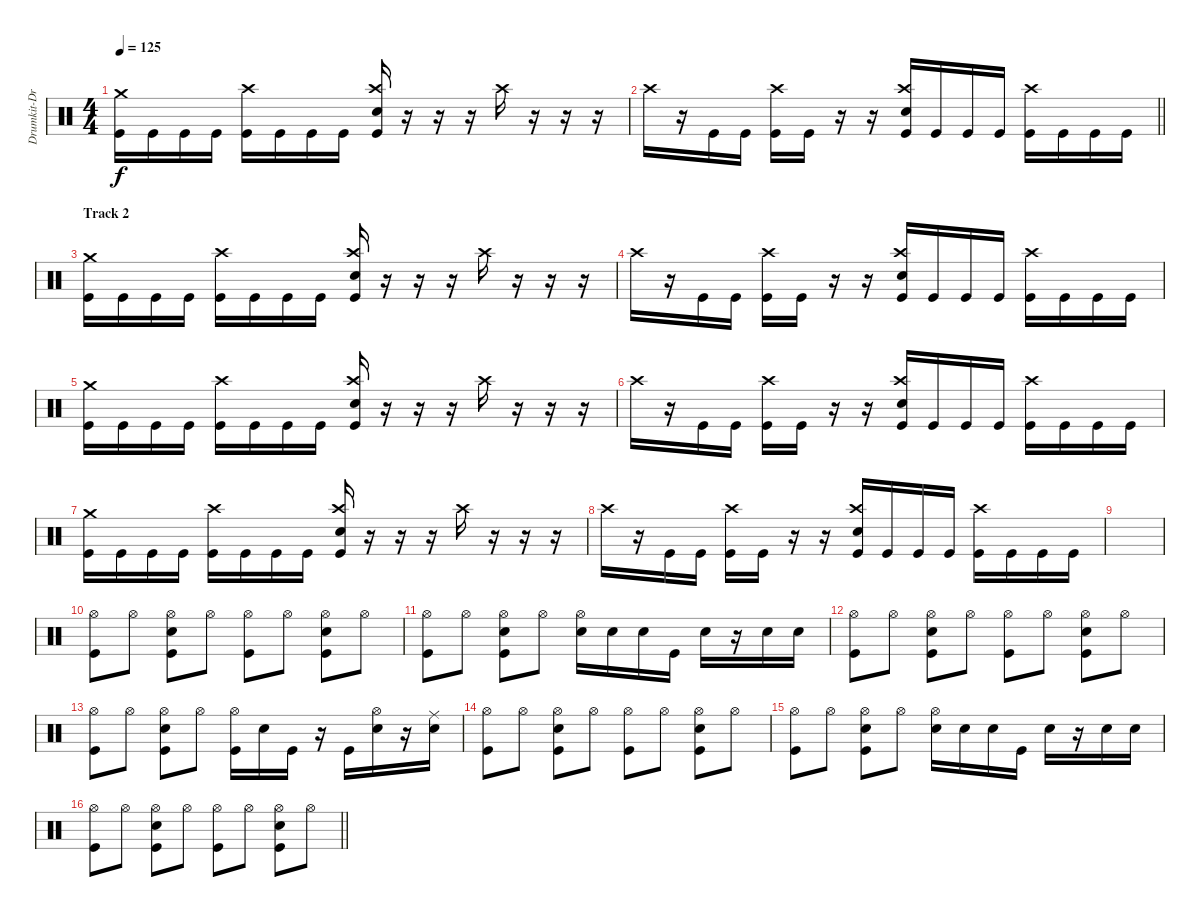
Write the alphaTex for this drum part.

\track ("Drumkit-Drums" "Drumkit-Dr") {instrument percussion}
\staff {score}
\articulation defaults
\ts (4 4)
\tempo 125
\clef neutral
\ks c
("Kick (hit)" "Crash medium (hit)").16{dy f} "Kick (hit)".16 "Kick (hit)".16 "Kick (hit)".16 ("Kick (hit)" "Crash high (hit)").16 "Kick (hit)".16 "Kick (hit)".16 "Kick (hit)".16 ("Kick (hit)" "Crash high (hit)" "Snare (hit) 2").16 r.16 r.16 r.16 "Crash high (hit)".16 r.16 r.16 r.16 |
\barLineRight lightlight "Crash high (hit)".16
r.16 "Kick (hit)".16 "Kick (hit)".16 ("Kick (hit)" "Crash high (hit)").16 "Kick (hit)".16 r.16 r.16 ("Crash high (hit)" "Kick (hit)" "Snare (hit) 2").16 "Kick (hit)".16 "Kick (hit)".16 "Kick (hit)".16 ("Kick (hit)" "Crash high (hit)").16 "Kick (hit)".16 "Kick (hit)".16 "Kick (hit)".16 |
\section ("" "Track 2")
("Kick (hit)" "Crash medium (hit)").16 "Kick (hit)".16 "Kick (hit)".16 "Kick (hit)".16 ("Kick (hit)" "Crash high (hit)").16 "Kick (hit)".16 "Kick (hit)".16 "Kick (hit)".16 ("Kick (hit)" "Crash high (hit)" "Snare (hit) 2").16 r.16 r.16 r.16 "Crash high (hit)".16 r.16 r.16 r.16 |
"Crash high (hit)".16 r.16 "Kick (hit)".16 "Kick (hit)".16 ("Kick (hit)" "Crash high (hit)").16 "Kick (hit)".16 r.16 r.16 ("Crash high (hit)" "Kick (hit)" "Snare (hit) 2").16 "Kick (hit)".16 "Kick (hit)".16 "Kick (hit)".16 ("Kick (hit)" "Crash high (hit)").16 "Kick (hit)".16 "Kick (hit)".16 "Kick (hit)".16 |
("Kick (hit)" "Crash medium (hit)").16 "Kick (hit)".16 "Kick (hit)".16 "Kick (hit)".16 ("Kick (hit)" "Crash high (hit)").16 "Kick (hit)".16 "Kick (hit)".16 "Kick (hit)".16 ("Kick (hit)" "Crash high (hit)" "Snare (hit) 2").16 r.16 r.16 r.16 "Crash high (hit)".16 r.16 r.16 r.16 |
"Crash high (hit)".16 r.16 "Kick (hit)".16 "Kick (hit)".16 ("Kick (hit)" "Crash high (hit)").16 "Kick (hit)".16 r.16 r.16 ("Crash high (hit)" "Kick (hit)" "Snare (hit) 2").16 "Kick (hit)".16 "Kick (hit)".16 "Kick (hit)".16 ("Kick (hit)" "Crash high (hit)").16 "Kick (hit)".16 "Kick (hit)".16 "Kick (hit)".16 |
("Kick (hit)" "Crash medium (hit)").16 "Kick (hit)".16 "Kick (hit)".16 "Kick (hit)".16 ("Kick (hit)" "Crash high (hit)").16 "Kick (hit)".16 "Kick (hit)".16 "Kick (hit)".16 ("Kick (hit)" "Crash high (hit)" "Snare (hit) 2").16 r.16 r.16 r.16 "Crash high (hit)".16 r.16 r.16 r.16 |
"Crash high (hit)".16 r.16 "Kick (hit)".16 "Kick (hit)".16 ("Kick (hit)" "Crash high (hit)").16 "Kick (hit)".16 r.16 r.16 ("Crash high (hit)" "Kick (hit)" "Snare (hit) 2").16 "Kick (hit)".16 "Kick (hit)".16 "Kick (hit)".16 ("Kick (hit)" "Crash high (hit)").16 "Kick (hit)".16 "Kick (hit)".16 "Kick (hit)".16 |
|
("Kick (hit)" "Hi-Hat (open)").8 "Hi-Hat (open)".8 ("Kick (hit)" "Snare (hit) 2" "Hi-Hat (open)").8 "Hi-Hat (open)".8 ("Kick (hit)" "Hi-Hat (open)").8 "Hi-Hat (open)".8 ("Kick (hit)" "Snare (hit) 2" "Hi-Hat (open)").8 "Hi-Hat (open)".8 |
("Kick (hit)" "Hi-Hat (open)").8 "Hi-Hat (open)".8 ("Kick (hit)" "Snare (hit) 2" "Hi-Hat (open)").8 "Hi-Hat (open)".8 ("Snare (hit) 2" "Hi-Hat (open)").16 "Snare (hit) 2".16 "Snare (hit) 2".16 "Kick (hit)".16 "Snare (hit) 2".16 r.16 "Snare (hit) 2".16 "Snare (hit) 2".16 |
("Kick (hit)" "Hi-Hat (open)").8 "Hi-Hat (open)".8 ("Kick (hit)" "Snare (hit) 2" "Hi-Hat (open)").8 "Hi-Hat (open)".8 ("Kick (hit)" "Hi-Hat (open)").8 "Hi-Hat (open)".8 ("Kick (hit)" "Snare (hit) 2" "Hi-Hat (open)").8 "Hi-Hat (open)".8 |
("Kick (hit)" "Hi-Hat (open)").8 "Hi-Hat (open)".8 ("Kick (hit)" "Snare (hit) 2" "Hi-Hat (open)").8 "Hi-Hat (open)".8 ("Kick (hit)" "Hi-Hat (open)").16 "Snare (hit) 2".16 "Kick (hit)".16 r.16 "Kick (hit)".16 ("Snare (hit) 2" "Hi-Hat (open)").16 r.16 ("Snare (hit) 2" "Ride (middle)").16 |
("Kick (hit)" "Hi-Hat (open)").8 "Hi-Hat (open)".8 ("Kick (hit)" "Snare (hit) 2" "Hi-Hat (open)").8 "Hi-Hat (open)".8 ("Kick (hit)" "Hi-Hat (open)").8 "Hi-Hat (open)".8 ("Kick (hit)" "Snare (hit) 2" "Hi-Hat (open)").8 "Hi-Hat (open)".8 |
("Kick (hit)" "Hi-Hat (open)").8 "Hi-Hat (open)".8 ("Kick (hit)" "Snare (hit) 2" "Hi-Hat (open)").8 "Hi-Hat (open)".8 ("Snare (hit) 2" "Hi-Hat (open)").16 "Snare (hit) 2".16 "Snare (hit) 2".16 "Kick (hit)".16 "Snare (hit) 2".16 r.16 "Snare (hit) 2".16 "Snare (hit) 2".16 |
\barLineRight lightlight
("Kick (hit)" "Hi-Hat (open)").8 "Hi-Hat (open)".8 ("Kick (hit)" "Snare (hit) 2" "Hi-Hat (open)").8 "Hi-Hat (open)".8 ("Kick (hit)" "Hi-Hat (open)").8 "Hi-Hat (open)".8 ("Kick (hit)" "Snare (hit) 2" "Hi-Hat (open)").8 "Hi-Hat (open)".8
